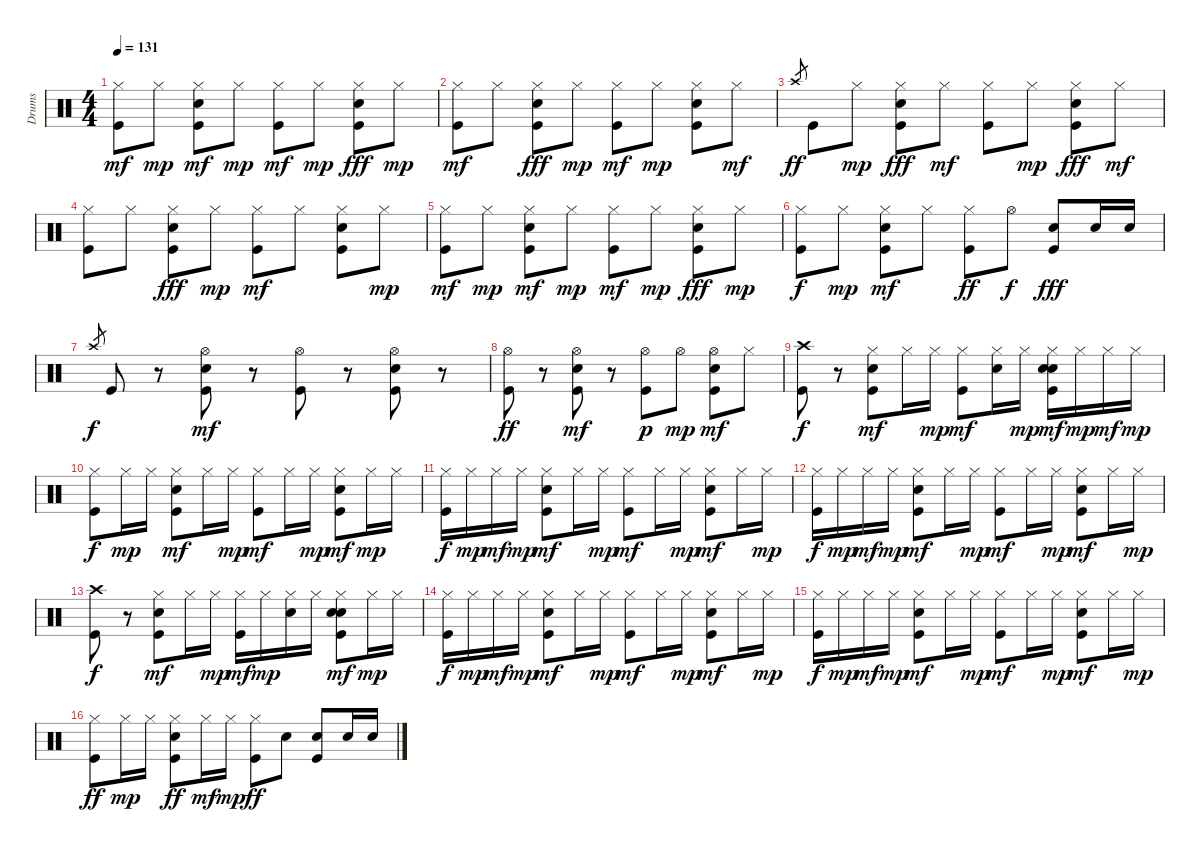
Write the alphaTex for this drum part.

\track ("Drums" "Drums") {instrument percussion}
\staff {score}
\articulation defaults
\ts (4 4)
\tempo 131
\clef neutral
\ks c
("Kick (hit)" "Hi-Hat (closed)").8{dy mf} "Hi-Hat (closed)".8{dy mp} ("Kick (hit)" "Snare (hit) 2" "Hi-Hat (closed)").8{dy mf} "Hi-Hat (closed)".8{dy mp} ("Kick (hit)" "Hi-Hat (closed)").8{dy mf} "Hi-Hat (closed)".8{dy mp} ("Kick (hit)" "Snare (hit) 2" "Hi-Hat (closed)").8{dy fff} "Hi-Hat (closed)".8{dy mp} |
("Kick (hit)" "Hi-Hat (closed)").8{dy mf} "Hi-Hat (closed)".8 ("Kick (hit)" "Snare (hit) 2" "Hi-Hat (closed)").8{dy fff} "Hi-Hat (closed)".8{dy mp} ("Kick (hit)" "Hi-Hat (closed)").8{dy mf} "Hi-Hat (closed)".8{dy mp} ("Kick (hit)" "Snare (hit) 2" "Hi-Hat (closed)").8 "Hi-Hat (closed)".8{dy mf} |
"Crash high (hit)".8{gr dy ff} "Kick (hit)".8 "Hi-Hat (closed)".8{dy mp} ("Kick (hit)" "Snare (hit) 2" "Hi-Hat (closed)").8{dy fff} "Hi-Hat (closed)".8{dy mf} ("Kick (hit)" "Hi-Hat (closed)").8 "Hi-Hat (closed)".8{dy mp} ("Kick (hit)" "Snare (hit) 2" "Hi-Hat (closed)").8{dy fff} "Hi-Hat (closed)".8{dy mf} |
("Kick (hit)" "Hi-Hat (closed)").8 "Hi-Hat (closed)".8 ("Kick (hit)" "Snare (hit) 2" "Hi-Hat (closed)").8{dy fff} "Hi-Hat (closed)".8{dy mp} ("Kick (hit)" "Hi-Hat (closed)").8{dy mf} "Hi-Hat (closed)".8 ("Kick (hit)" "Snare (hit) 2" "Hi-Hat (closed)").8 "Hi-Hat (closed)".8{dy mp} |
("Kick (hit)" "Hi-Hat (closed)").8{dy mf} "Hi-Hat (closed)".8{dy mp} ("Kick (hit)" "Snare (hit) 2" "Hi-Hat (closed)").8{dy mf} "Hi-Hat (closed)".8{dy mp} ("Kick (hit)" "Hi-Hat (closed)").8{dy mf} "Hi-Hat (closed)".8{dy mp} ("Kick (hit)" "Snare (hit) 2" "Hi-Hat (closed)").8{dy fff} "Hi-Hat (closed)".8{dy mp} |
("Kick (hit)" "Hi-Hat (closed)").8{dy f} "Hi-Hat (closed)".8{dy mp} ("Kick (hit)" "Snare (hit) 2" "Hi-Hat (closed)").8{dy mf} "Hi-Hat (closed)".8 ("Kick (hit)" "Hi-Hat (closed)").8{dy ff} "Hi-Hat (open)".8{dy f} ("Kick (hit)" "Snare (hit) 2").8{dy fff} "Snare (hit) 2".16 "Snare (hit) 2".16 |
"Crash high (hit)".8{gr dy f} "Kick (hit)".8 r.8 ("Kick (hit)" "Snare (hit) 2" "Hi-Hat (open)").8{dy mf} r.8 ("Kick (hit)" "Hi-Hat (open)").8 r.8 ("Kick (hit)" "Snare (hit) 2" "Hi-Hat (open)").8 r.8 |
("Kick (hit)" "Hi-Hat (open)").8{dy ff} r.8 ("Kick (hit)" "Snare (hit) 2" "Hi-Hat (open)").8{dy mf} r.8 ("Kick (hit)" "Hi-Hat (open)").8{dy p} "Hi-Hat (open)".8{dy mp} ("Kick (hit)" "Snare (hit) 2" "Hi-Hat (open)").8{dy mf} "Hi-Hat (closed)".8 |
("Kick (hit)" "Crash high (hit)").8{dy f} r.8 ("Kick (hit)" "Snare (hit) 2" "Hi-Hat (closed)").8{dy mf} "Hi-Hat (closed)".16 "Hi-Hat (closed)".16{dy mp} ("Kick (hit)" "Hi-Hat (closed)").8{dy mf} ("Hi-Hat (closed)" "Hand Clap (hit)").16 "Hi-Hat (closed)".16{dy mp} ("Kick (hit)" "Snare (hit) 2" "Hi-Hat (closed)" "Hand Clap (hit)").16{dy mf} "Hi-Hat (closed)".16{dy mp} "Hi-Hat (closed)".16{dy mf} "Hi-Hat (closed)".16{dy mp} |
("Kick (hit)" "Hi-Hat (closed)").8{dy f} "Hi-Hat (closed)".16{dy mp} "Hi-Hat (closed)".16 ("Kick (hit)" "Snare (hit) 2" "Hi-Hat (closed)").8{dy mf} "Hi-Hat (closed)".16 "Hi-Hat (closed)".16{dy mp} ("Kick (hit)" "Hi-Hat (closed)").8{dy mf} "Hi-Hat (closed)".16 "Hi-Hat (closed)".16{dy mp} ("Kick (hit)" "Snare (hit) 2" "Hi-Hat (closed)").8{dy mf} "Hi-Hat (closed)".16{dy mp} "Hi-Hat (closed)".16 |
("Kick (hit)" "Hi-Hat (closed)").16{dy f} "Hi-Hat (closed)".16{dy mp} "Hi-Hat (closed)".16{dy mf} "Hi-Hat (closed)".16{dy mp} ("Kick (hit)" "Snare (hit) 2" "Hi-Hat (closed)").8{dy mf} "Hi-Hat (closed)".16 "Hi-Hat (closed)".16{dy mp} ("Kick (hit)" "Hi-Hat (closed)").8{dy mf} "Hi-Hat (closed)".16 "Hi-Hat (closed)".16{dy mp} ("Kick (hit)" "Snare (hit) 2" "Hi-Hat (closed)").8{dy mf} "Hi-Hat (closed)".16 "Hi-Hat (closed)".16{dy mp} |
("Kick (hit)" "Hi-Hat (closed)").16{dy f} "Hi-Hat (closed)".16{dy mp} "Hi-Hat (closed)".16{dy mf} "Hi-Hat (closed)".16{dy mp} ("Kick (hit)" "Snare (hit) 2" "Hi-Hat (closed)").8{dy mf} "Hi-Hat (closed)".16 "Hi-Hat (closed)".16{dy mp} ("Kick (hit)" "Hi-Hat (closed)").8{dy mf} "Hi-Hat (closed)".16 "Hi-Hat (closed)".16{dy mp} ("Kick (hit)" "Snare (hit) 2" "Hi-Hat (closed)").8{dy mf} "Hi-Hat (closed)".16 "Hi-Hat (closed)".16{dy mp} |
("Kick (hit)" "Crash high (hit)").8{dy f} r.8 ("Kick (hit)" "Snare (hit) 2" "Hi-Hat (closed)").8{dy mf} "Hi-Hat (closed)".16 "Hi-Hat (closed)".16{dy mp} ("Kick (hit)" "Hi-Hat (closed)").16{dy mf} "Hi-Hat (closed)".16{dy mp} ("Hi-Hat (closed)" "Hand Clap (hit)").16 "Hi-Hat (closed)".16 ("Kick (hit)" "Snare (hit) 2" "Hi-Hat (closed)" "Hand Clap (hit)").8{dy mf} "Hi-Hat (closed)".16{dy mp} "Hi-Hat (closed)".16 |
("Kick (hit)" "Hi-Hat (closed)").16{dy f} "Hi-Hat (closed)".16{dy mp} "Hi-Hat (closed)".16{dy mf} "Hi-Hat (closed)".16{dy mp} ("Kick (hit)" "Snare (hit) 2" "Hi-Hat (closed)").8{dy mf} "Hi-Hat (closed)".16 "Hi-Hat (closed)".16{dy mp} ("Kick (hit)" "Hi-Hat (closed)").8{dy mf} "Hi-Hat (closed)".16 "Hi-Hat (closed)".16{dy mp} ("Kick (hit)" "Snare (hit) 2" "Hi-Hat (closed)").8{dy mf} "Hi-Hat (closed)".16 "Hi-Hat (closed)".16{dy mp} |
("Kick (hit)" "Hi-Hat (closed)").16{dy f} "Hi-Hat (closed)".16{dy mp} "Hi-Hat (closed)".16{dy mf} "Hi-Hat (closed)".16{dy mp} ("Kick (hit)" "Snare (hit) 2" "Hi-Hat (closed)").8{dy mf} "Hi-Hat (closed)".16 "Hi-Hat (closed)".16{dy mp} ("Kick (hit)" "Hi-Hat (closed)").8{dy mf} "Hi-Hat (closed)".16 "Hi-Hat (closed)".16{dy mp} ("Kick (hit)" "Snare (hit) 2" "Hi-Hat (closed)").8{dy mf} "Hi-Hat (closed)".16 "Hi-Hat (closed)".16{dy mp} |
("Kick (hit)" "Hi-Hat (closed)").8{dy ff} "Hi-Hat (closed)".16{dy mp} "Hi-Hat (closed)".16 ("Kick (hit)" "Snare (hit) 2" "Hi-Hat (closed)").8{dy ff} "Hi-Hat (closed)".16{dy mf} "Hi-Hat (closed)".16{dy mp} ("Kick (hit)" "Hi-Hat (closed)").8{dy ff} "Snare (hit) 2".8 ("Kick (hit)" "Snare (hit) 2").8 "Snare (hit) 2".16 "Snare (hit) 2".16
